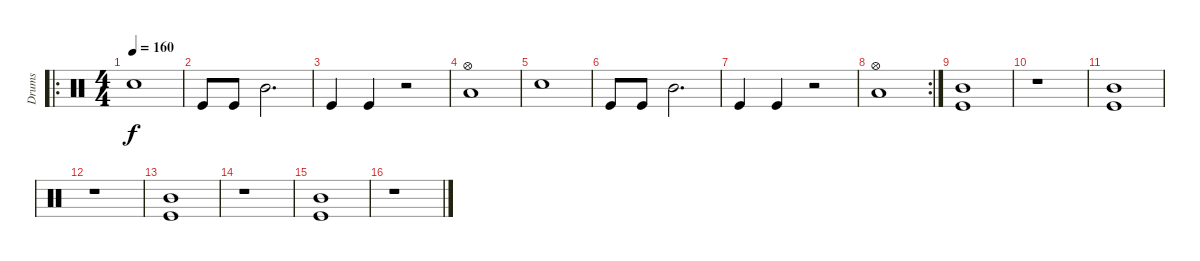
\track ("Drums" "Drums") {instrument percussion}
\staff {score}
\articulation defaults
\ro
\ts (4 4)
\tempo 160
\clef neutral
\ks c "Snare (hit) 2".1{dy f}
|
"Kick (hit)".8 "Kick (hit)".8 "Mid Tom (hit)".2{d} |
"Kick (hit)".4 "Kick (hit)".4 r.2 |
("Hi-Hat (open)" "Low Tom (hit)").1 |
"Snare (hit) 2".1 |
"Kick (hit)".8 "Kick (hit)".8 "Mid Tom (hit)".2{d} |
"Kick (hit)".4 "Kick (hit)".4 r.2 |
\rc 2
("Hi-Hat (open)" "Low Tom (hit)").1 |
("Mid Tom (hit)" "Kick (hit)").1 |
r.1 |
("Mid Tom (hit)" "Kick (hit)").1 |
r.1 |
("Mid Tom (hit)" "Kick (hit)").1 |
r.1 |
("Mid Tom (hit)" "Kick (hit)").1 |
r.1
